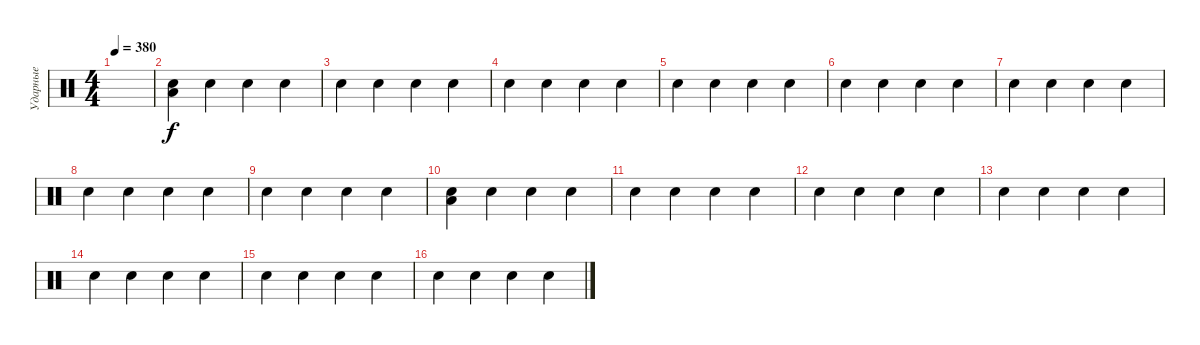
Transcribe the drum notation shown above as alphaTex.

\track ("Ударные" "Ударные") {instrument percussion}
\staff {score}
\articulation defaults
\ts (4 4)
\tempo 380
\clef neutral
\ks c
|
("Electric Snare (hit)" "Low Tom (hit)").4 "Electric Snare (hit)".4 "Electric Snare (hit)".4 "Electric Snare (hit)".4 |
"Electric Snare (hit)".4 "Electric Snare (hit)".4 "Electric Snare (hit)".4 "Electric Snare (hit)".4 |
"Electric Snare (hit)".4 "Electric Snare (hit)".4 "Electric Snare (hit)".4 "Electric Snare (hit)".4 |
"Electric Snare (hit)".4 "Electric Snare (hit)".4 "Electric Snare (hit)".4 "Electric Snare (hit)".4 |
"Electric Snare (hit)".4 "Electric Snare (hit)".4 "Electric Snare (hit)".4 "Electric Snare (hit)".4 |
"Electric Snare (hit)".4 "Electric Snare (hit)".4 "Electric Snare (hit)".4 "Electric Snare (hit)".4 |
"Electric Snare (hit)".4 "Electric Snare (hit)".4 "Electric Snare (hit)".4 "Electric Snare (hit)".4 |
"Electric Snare (hit)".4 "Electric Snare (hit)".4 "Electric Snare (hit)".4 "Electric Snare (hit)".4 |
("Electric Snare (hit)" "Low Tom (hit)").4 "Electric Snare (hit)".4 "Electric Snare (hit)".4 "Electric Snare (hit)".4 |
"Electric Snare (hit)".4 "Electric Snare (hit)".4 "Electric Snare (hit)".4 "Electric Snare (hit)".4 |
"Electric Snare (hit)".4 "Electric Snare (hit)".4 "Electric Snare (hit)".4 "Electric Snare (hit)".4 |
"Electric Snare (hit)".4 "Electric Snare (hit)".4 "Electric Snare (hit)".4 "Electric Snare (hit)".4 |
"Electric Snare (hit)".4 "Electric Snare (hit)".4 "Electric Snare (hit)".4 "Electric Snare (hit)".4 |
"Electric Snare (hit)".4 "Electric Snare (hit)".4 "Electric Snare (hit)".4 "Electric Snare (hit)".4 |
"Electric Snare (hit)".4 "Electric Snare (hit)".4 "Electric Snare (hit)".4 "Electric Snare (hit)".4
